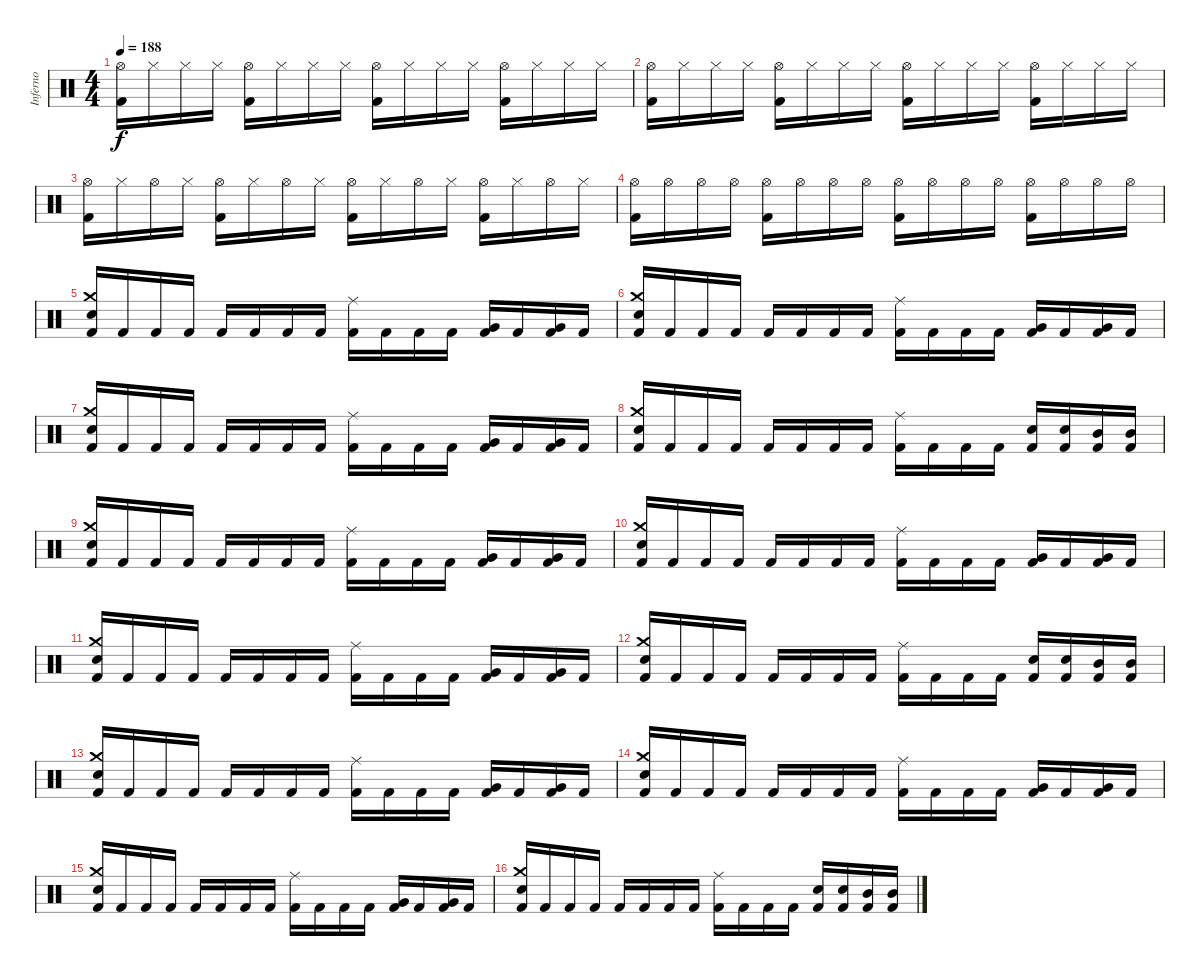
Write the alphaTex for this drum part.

\track ("Inferno" "Inferno") {instrument percussion}
\staff {score}
\articulation defaults
\ts (4 4)
\tempo 188
\clef neutral
\ks c
("Hi-Hat (open)" "Kick (hit) 2").16{dy f} "Hi-Hat (closed)".16 "Hi-Hat (closed)".16 "Hi-Hat (closed)".16 ("Hi-Hat (open)" "Kick (hit) 2").16 "Hi-Hat (closed)".16 "Hi-Hat (closed)".16 "Hi-Hat (closed)".16 ("Hi-Hat (open)" "Kick (hit) 2").16 "Hi-Hat (closed)".16 "Hi-Hat (closed)".16 "Hi-Hat (closed)".16 ("Hi-Hat (open)" "Kick (hit) 2").16 "Hi-Hat (closed)".16 "Hi-Hat (closed)".16 "Hi-Hat (closed)".16 |
("Hi-Hat (open)" "Kick (hit) 2").16 "Hi-Hat (closed)".16 "Hi-Hat (closed)".16 "Hi-Hat (closed)".16 ("Hi-Hat (open)" "Kick (hit) 2").16 "Hi-Hat (closed)".16 "Hi-Hat (closed)".16 "Hi-Hat (closed)".16 ("Hi-Hat (open)" "Kick (hit) 2").16 "Hi-Hat (closed)".16 "Hi-Hat (closed)".16 "Hi-Hat (closed)".16 ("Hi-Hat (open)" "Kick (hit) 2").16 "Hi-Hat (closed)".16 "Hi-Hat (closed)".16 "Hi-Hat (closed)".16 |
("Hi-Hat (open)" "Kick (hit) 2").16 "Hi-Hat (closed)".16 "Hi-Hat (open)".16 "Hi-Hat (closed)".16 ("Hi-Hat (open)" "Kick (hit) 2").16 "Hi-Hat (closed)".16 "Hi-Hat (open)".16 "Hi-Hat (closed)".16 ("Hi-Hat (open)" "Kick (hit) 2").16 "Hi-Hat (closed)".16 "Hi-Hat (open)".16 "Hi-Hat (closed)".16 ("Hi-Hat (open)" "Kick (hit) 2").16 "Hi-Hat (closed)".16 "Hi-Hat (open)".16 "Hi-Hat (closed)".16 |
("Hi-Hat (open)" "Kick (hit) 2").16 "Hi-Hat (open)".16 "Hi-Hat (open)".16 "Hi-Hat (open)".16 ("Hi-Hat (open)" "Kick (hit) 2").16 "Hi-Hat (open)".16 "Hi-Hat (open)".16 "Hi-Hat (open)".16 ("Hi-Hat (open)" "Kick (hit) 2").16 "Hi-Hat (open)".16 "Hi-Hat (open)".16 "Hi-Hat (open)".16 ("Hi-Hat (open)" "Kick (hit) 2").16 "Hi-Hat (open)".16 "Hi-Hat (open)".16 "Hi-Hat (open)".16 |
("Crash medium (hit)" "Snare (hit) 2" "Kick (hit) 2").16 "Kick (hit) 2".16 "Kick (hit) 2".16 "Kick (hit) 2".16 "Kick (hit) 2".16 "Kick (hit) 2".16 "Kick (hit) 2".16 "Kick (hit) 2".16 ("Ride (middle)" "Kick (hit) 2").16 "Kick (hit) 2".16 "Kick (hit) 2".16 "Kick (hit) 2".16 ("Very Low Tom (hit)" "Kick (hit) 2").16 "Kick (hit) 2".16 ("Very Low Tom (hit)" "Kick (hit) 2").16 "Kick (hit) 2".16 |
("Crash medium (hit)" "Snare (hit) 2" "Kick (hit) 2").16 "Kick (hit) 2".16 "Kick (hit) 2".16 "Kick (hit) 2".16 "Kick (hit) 2".16 "Kick (hit) 2".16 "Kick (hit) 2".16 "Kick (hit) 2".16 ("Ride (middle)" "Kick (hit) 2").16 "Kick (hit) 2".16 "Kick (hit) 2".16 "Kick (hit) 2".16 ("Very Low Tom (hit)" "Kick (hit) 2").16 "Kick (hit) 2".16 ("Very Low Tom (hit)" "Kick (hit) 2").16 "Kick (hit) 2".16 |
("Crash medium (hit)" "Snare (hit) 2" "Kick (hit) 2").16 "Kick (hit) 2".16 "Kick (hit) 2".16 "Kick (hit) 2".16 "Kick (hit) 2".16 "Kick (hit) 2".16 "Kick (hit) 2".16 "Kick (hit) 2".16 ("Ride (middle)" "Kick (hit) 2").16 "Kick (hit) 2".16 "Kick (hit) 2".16 "Kick (hit) 2".16 ("Very Low Tom (hit)" "Kick (hit) 2").16 "Kick (hit) 2".16 ("Very Low Tom (hit)" "Kick (hit) 2").16 "Kick (hit) 2".16 |
("Crash medium (hit)" "Snare (hit) 2" "Kick (hit) 2").16 "Kick (hit) 2".16 "Kick (hit) 2".16 "Kick (hit) 2".16 "Kick (hit) 2".16 "Kick (hit) 2".16 "Kick (hit) 2".16 "Kick (hit) 2".16 ("Ride (middle)" "Kick (hit) 2").16 "Kick (hit) 2".16 "Kick (hit) 2".16 "Kick (hit) 2".16 ("Snare (hit) 2" "Kick (hit) 2").16 ("Snare (hit) 2" "Kick (hit) 2").16 ("Mid Tom (hit)" "Kick (hit) 2").16 ("Mid Tom (hit)" "Kick (hit) 2").16 |
("Crash medium (hit)" "Snare (hit) 2" "Kick (hit) 2").16 "Kick (hit) 2".16 "Kick (hit) 2".16 "Kick (hit) 2".16 "Kick (hit) 2".16 "Kick (hit) 2".16 "Kick (hit) 2".16 "Kick (hit) 2".16 ("Ride (middle)" "Kick (hit) 2").16 "Kick (hit) 2".16 "Kick (hit) 2".16 "Kick (hit) 2".16 ("Very Low Tom (hit)" "Kick (hit) 2").16 "Kick (hit) 2".16 ("Very Low Tom (hit)" "Kick (hit) 2").16 "Kick (hit) 2".16 |
("Crash medium (hit)" "Snare (hit) 2" "Kick (hit) 2").16 "Kick (hit) 2".16 "Kick (hit) 2".16 "Kick (hit) 2".16 "Kick (hit) 2".16 "Kick (hit) 2".16 "Kick (hit) 2".16 "Kick (hit) 2".16 ("Ride (middle)" "Kick (hit) 2").16 "Kick (hit) 2".16 "Kick (hit) 2".16 "Kick (hit) 2".16 ("Very Low Tom (hit)" "Kick (hit) 2").16 "Kick (hit) 2".16 ("Very Low Tom (hit)" "Kick (hit) 2").16 "Kick (hit) 2".16 |
("Crash medium (hit)" "Snare (hit) 2" "Kick (hit) 2").16 "Kick (hit) 2".16 "Kick (hit) 2".16 "Kick (hit) 2".16 "Kick (hit) 2".16 "Kick (hit) 2".16 "Kick (hit) 2".16 "Kick (hit) 2".16 ("Ride (middle)" "Kick (hit) 2").16 "Kick (hit) 2".16 "Kick (hit) 2".16 "Kick (hit) 2".16 ("Very Low Tom (hit)" "Kick (hit) 2").16 "Kick (hit) 2".16 ("Very Low Tom (hit)" "Kick (hit) 2").16 "Kick (hit) 2".16 |
("Crash medium (hit)" "Snare (hit) 2" "Kick (hit) 2").16 "Kick (hit) 2".16 "Kick (hit) 2".16 "Kick (hit) 2".16 "Kick (hit) 2".16 "Kick (hit) 2".16 "Kick (hit) 2".16 "Kick (hit) 2".16 ("Ride (middle)" "Kick (hit) 2").16 "Kick (hit) 2".16 "Kick (hit) 2".16 "Kick (hit) 2".16 ("Snare (hit) 2" "Kick (hit) 2").16 ("Snare (hit) 2" "Kick (hit) 2").16 ("Mid Tom (hit)" "Kick (hit) 2").16 ("Mid Tom (hit)" "Kick (hit) 2").16 |
("Crash medium (hit)" "Snare (hit) 2" "Kick (hit) 2").16 "Kick (hit) 2".16 "Kick (hit) 2".16 "Kick (hit) 2".16 "Kick (hit) 2".16 "Kick (hit) 2".16 "Kick (hit) 2".16 "Kick (hit) 2".16 ("Ride (middle)" "Kick (hit) 2").16 "Kick (hit) 2".16 "Kick (hit) 2".16 "Kick (hit) 2".16 ("Very Low Tom (hit)" "Kick (hit) 2").16 "Kick (hit) 2".16 ("Very Low Tom (hit)" "Kick (hit) 2").16 "Kick (hit) 2".16 |
("Crash medium (hit)" "Snare (hit) 2" "Kick (hit) 2").16 "Kick (hit) 2".16 "Kick (hit) 2".16 "Kick (hit) 2".16 "Kick (hit) 2".16 "Kick (hit) 2".16 "Kick (hit) 2".16 "Kick (hit) 2".16 ("Ride (middle)" "Kick (hit) 2").16 "Kick (hit) 2".16 "Kick (hit) 2".16 "Kick (hit) 2".16 ("Very Low Tom (hit)" "Kick (hit) 2").16 "Kick (hit) 2".16 ("Very Low Tom (hit)" "Kick (hit) 2").16 "Kick (hit) 2".16 |
("Crash medium (hit)" "Snare (hit) 2" "Kick (hit) 2").16 "Kick (hit) 2".16 "Kick (hit) 2".16 "Kick (hit) 2".16 "Kick (hit) 2".16 "Kick (hit) 2".16 "Kick (hit) 2".16 "Kick (hit) 2".16 ("Ride (middle)" "Kick (hit) 2").16 "Kick (hit) 2".16 "Kick (hit) 2".16 "Kick (hit) 2".16 ("Very Low Tom (hit)" "Kick (hit) 2").16 "Kick (hit) 2".16 ("Very Low Tom (hit)" "Kick (hit) 2").16 "Kick (hit) 2".16 |
("Crash medium (hit)" "Snare (hit) 2" "Kick (hit) 2").16 "Kick (hit) 2".16 "Kick (hit) 2".16 "Kick (hit) 2".16 "Kick (hit) 2".16 "Kick (hit) 2".16 "Kick (hit) 2".16 "Kick (hit) 2".16 ("Ride (middle)" "Kick (hit) 2").16 "Kick (hit) 2".16 "Kick (hit) 2".16 "Kick (hit) 2".16 ("Snare (hit) 2" "Kick (hit) 2").16 ("Snare (hit) 2" "Kick (hit) 2").16 ("Mid Tom (hit)" "Kick (hit) 2").16 ("Mid Tom (hit)" "Kick (hit) 2").16
